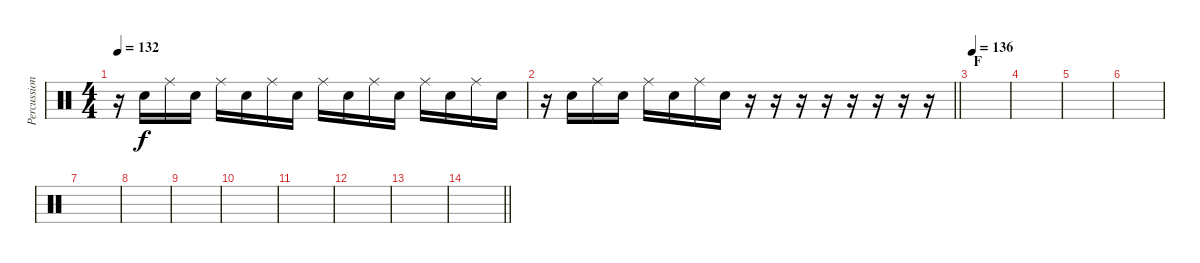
\track ("Percussion" "Percussion") {instrument percussion}
\staff {score}
\articulation defaults
\ts (4 4)
\tempo 132
\clef neutral
\ks c
r.16{dy f} "Electric Snare (hit)".16 "Ride (middle)".16 "Electric Snare (hit)".16 "Ride (middle)".16 "Electric Snare (hit)".16 "Ride (middle)".16 "Electric Snare (hit)".16 "Ride (middle)".16 "Electric Snare (hit)".16 "Ride (middle)".16 "Electric Snare (hit)".16 "Ride (middle)".16 "Electric Snare (hit)".16 "Ride (middle)".16 "Electric Snare (hit)".16 |
\barLineRight lightlight
r.16 "Electric Snare (hit)".16 "Ride (middle)".16 "Electric Snare (hit)".16 "Ride (middle)".16 "Electric Snare (hit)".16 "Ride (middle)".16 "Electric Snare (hit)".16 r.16 r.16 r.16 r.16 r.16 r.16 r.16 r.16 |
\section ("" "F")
\tempo 136
|
|
|
|
|
|
|
|
|
|
|
\barLineRight lightlight
